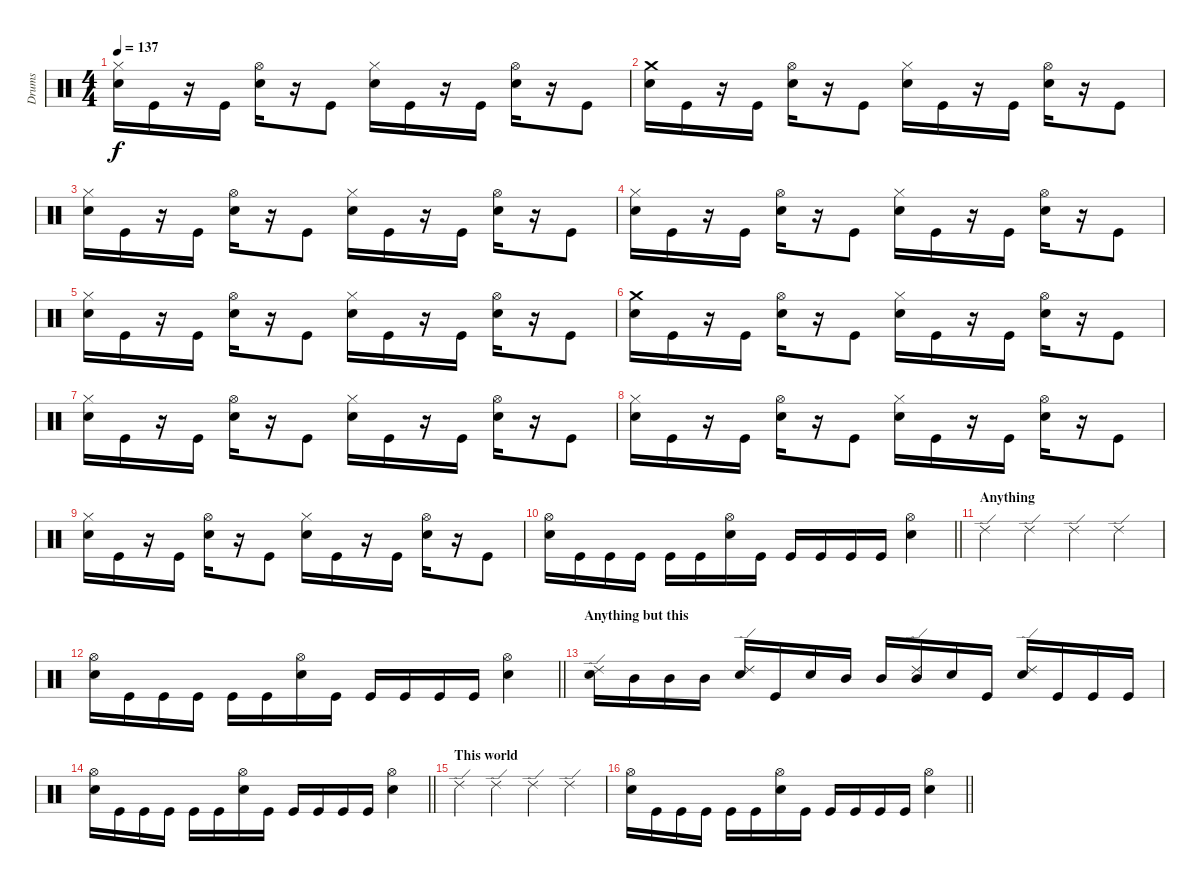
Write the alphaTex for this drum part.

\track ("Drums" "Drums") {instrument percussion}
\staff {score}
\articulation defaults
\ts (4 4)
\tempo 137
\clef neutral
\ks c
("Hi-Hat (closed)" "Snare (hit) 2").16{dy f} "Kick (hit)".16 r.16 "Kick (hit)".16 ("Hi-Hat (open)" "Snare (hit) 2").16 r.16 "Kick (hit)".8 ("Hi-Hat (closed)" "Snare (hit) 2").16 "Kick (hit)".16 r.16 "Kick (hit)".16 ("Hi-Hat (open)" "Snare (hit) 2").16 r.16 "Kick (hit)".8 |
("Crash medium (hit)" "Snare (hit) 2").16 "Kick (hit)".16 r.16 "Kick (hit)".16 ("Hi-Hat (open)" "Snare (hit) 2").16 r.16 "Kick (hit)".8 ("Hi-Hat (closed)" "Snare (hit) 2").16 "Kick (hit)".16 r.16 "Kick (hit)".16 ("Hi-Hat (open)" "Snare (hit) 2").16 r.16 "Kick (hit)".8 |
("Hi-Hat (closed)" "Snare (hit) 2").16 "Kick (hit)".16 r.16 "Kick (hit)".16 ("Hi-Hat (open)" "Snare (hit) 2").16 r.16 "Kick (hit)".8 ("Hi-Hat (closed)" "Snare (hit) 2").16 "Kick (hit)".16 r.16 "Kick (hit)".16 ("Hi-Hat (open)" "Snare (hit) 2").16 r.16 "Kick (hit)".8 |
("Hi-Hat (closed)" "Snare (hit) 2").16 "Kick (hit)".16 r.16 "Kick (hit)".16 ("Hi-Hat (open)" "Snare (hit) 2").16 r.16 "Kick (hit)".8 ("Hi-Hat (closed)" "Snare (hit) 2").16 "Kick (hit)".16 r.16 "Kick (hit)".16 ("Hi-Hat (open)" "Snare (hit) 2").16 r.16 "Kick (hit)".8 |
("Hi-Hat (closed)" "Snare (hit) 2").16 "Kick (hit)".16 r.16 "Kick (hit)".16 ("Hi-Hat (open)" "Snare (hit) 2").16 r.16 "Kick (hit)".8 ("Hi-Hat (closed)" "Snare (hit) 2").16 "Kick (hit)".16 r.16 "Kick (hit)".16 ("Hi-Hat (open)" "Snare (hit) 2").16 r.16 "Kick (hit)".8 |
("Crash medium (hit)" "Snare (hit) 2").16 "Kick (hit)".16 r.16 "Kick (hit)".16 ("Hi-Hat (open)" "Snare (hit) 2").16 r.16 "Kick (hit)".8 ("Hi-Hat (closed)" "Snare (hit) 2").16 "Kick (hit)".16 r.16 "Kick (hit)".16 ("Hi-Hat (open)" "Snare (hit) 2").16 r.16 "Kick (hit)".8 |
("Hi-Hat (closed)" "Snare (hit) 2").16 "Kick (hit)".16 r.16 "Kick (hit)".16 ("Hi-Hat (open)" "Snare (hit) 2").16 r.16 "Kick (hit)".8 ("Hi-Hat (closed)" "Snare (hit) 2").16 "Kick (hit)".16 r.16 "Kick (hit)".16 ("Hi-Hat (open)" "Snare (hit) 2").16 r.16 "Kick (hit)".8 |
("Hi-Hat (closed)" "Snare (hit) 2").16 "Kick (hit)".16 r.16 "Kick (hit)".16 ("Hi-Hat (open)" "Snare (hit) 2").16 r.16 "Kick (hit)".8 ("Hi-Hat (closed)" "Snare (hit) 2").16 "Kick (hit)".16 r.16 "Kick (hit)".16 ("Hi-Hat (open)" "Snare (hit) 2").16 r.16 "Kick (hit)".8 |
("Hi-Hat (closed)" "Snare (hit) 2").16 "Kick (hit)".16 r.16 "Kick (hit)".16 ("Hi-Hat (open)" "Snare (hit) 2").16 r.16 "Kick (hit)".8 ("Hi-Hat (closed)" "Snare (hit) 2").16 "Kick (hit)".16 r.16 "Kick (hit)".16 ("Hi-Hat (open)" "Snare (hit) 2").16 r.16 "Kick (hit)".8 |
\barLineRight lightlight
("Hi-Hat (open)" "Snare (hit) 2").16 "Kick (hit)".16 "Kick (hit)".16 "Kick (hit)".16 "Kick (hit)".16 "Kick (hit)".16 ("Hi-Hat (open)" "Snare (hit) 2").16 "Kick (hit)".16 "Kick (hit)".16 "Kick (hit)".16 "Kick (hit)".16 "Kick (hit)".16 ("Hi-Hat (open)" "Snare (hit) 2").4 |
\section ("" "Anything")
"Ride (edge) 2".4 "Ride (edge) 2".4 "Ride (edge) 2".4 "Ride (edge) 2".4 |
\barLineRight lightlight
("Hi-Hat (open)" "Snare (hit) 2").16 "Kick (hit)".16 "Kick (hit)".16 "Kick (hit)".16 "Kick (hit)".16 "Kick (hit)".16 ("Hi-Hat (open)" "Snare (hit) 2").16 "Kick (hit)".16 "Kick (hit)".16 "Kick (hit)".16 "Kick (hit)".16 "Kick (hit)".16 ("Hi-Hat (open)" "Snare (hit) 2").4 |
\section ("" "Anything but this")
("Ride (edge) 2" "Snare (hit) 2").16 "Mid Tom (hit)".16 "Mid Tom (hit)".16 "Mid Tom (hit)".16 ("Ride (edge) 2" "Snare (hit) 2").16 "Kick (hit)".16 "Snare (hit) 2".16 "Mid Tom (hit)".16 "Mid Tom (hit)".16 ("Ride (edge) 2" "Mid Tom (hit)").16 "Snare (hit) 2".16 "Kick (hit)".16 ("Ride (edge) 2" "Snare (hit) 2").16 "Kick (hit)".16 "Kick (hit)".16 "Kick (hit)".16 |
\barLineRight lightlight
("Hi-Hat (open)" "Snare (hit) 2").16 "Kick (hit)".16 "Kick (hit)".16 "Kick (hit)".16 "Kick (hit)".16 "Kick (hit)".16 ("Hi-Hat (open)" "Snare (hit) 2").16 "Kick (hit)".16 "Kick (hit)".16 "Kick (hit)".16 "Kick (hit)".16 "Kick (hit)".16 ("Hi-Hat (open)" "Snare (hit) 2").4 |
\section ("" "This world")
"Ride (edge) 2".4 "Ride (edge) 2".4 "Ride (edge) 2".4 "Ride (edge) 2".4 |
\barLineRight lightlight
("Hi-Hat (open)" "Snare (hit) 2").16 "Kick (hit)".16 "Kick (hit)".16 "Kick (hit)".16 "Kick (hit)".16 "Kick (hit)".16 ("Hi-Hat (open)" "Snare (hit) 2").16 "Kick (hit)".16 "Kick (hit)".16 "Kick (hit)".16 "Kick (hit)".16 "Kick (hit)".16 ("Hi-Hat (open)" "Snare (hit) 2").4
